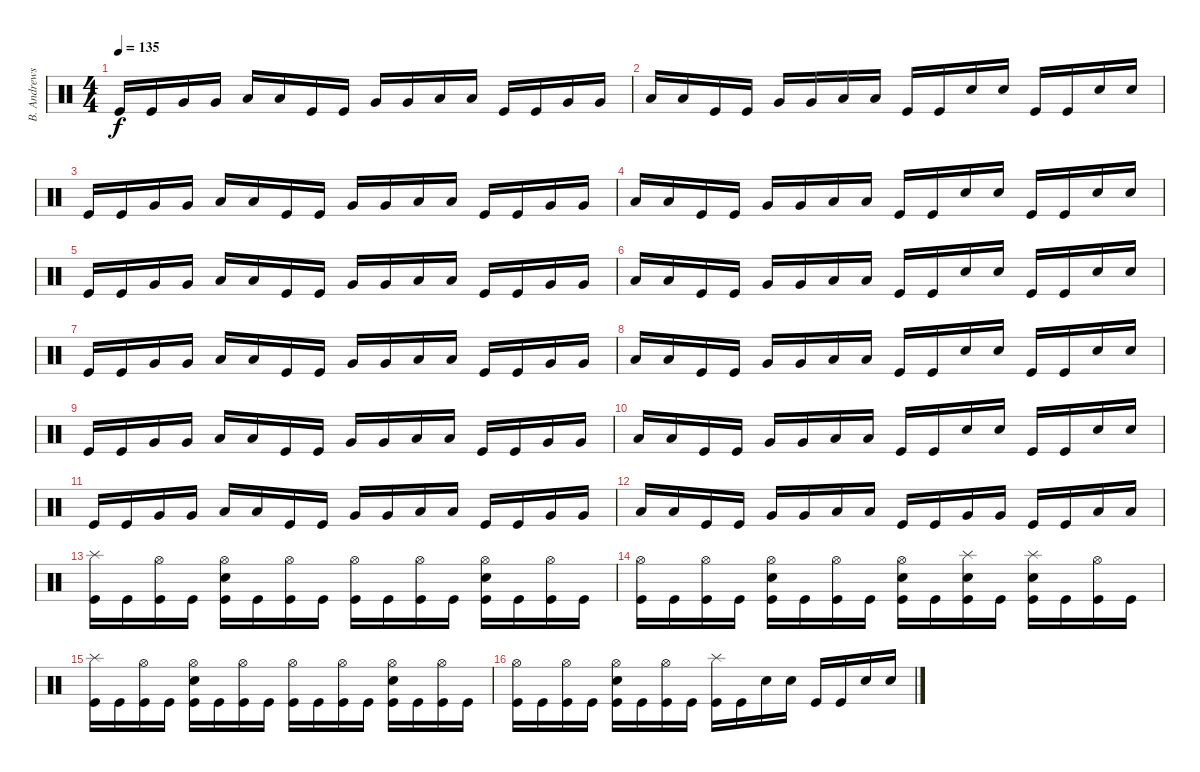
\track ("B. Andrews" "B. Andrews") {instrument percussion}
\staff {score}
\articulation defaults
\ts (4 4)
\tempo 140
\tempo 135
\clef neutral
\ks c "Kick (hit)".16{dy f} "Kick (hit)".16 "Very Low Tom (hit)".16 "Very Low Tom (hit)".16 "Low Floor Tom (hit)".16 "Low Floor Tom (hit)".16 "Kick (hit)".16 "Kick (hit)".16 "Very Low Tom (hit)".16 "Very Low Tom (hit)".16 "Low Floor Tom (hit)".16 "Low Floor Tom (hit)".16 "Kick (hit)".16 "Kick (hit)".16 "Very Low Tom (hit)".16 "Very Low Tom (hit)".16
|
"Low Floor Tom (hit)".16 "Low Floor Tom (hit)".16 "Kick (hit)".16 "Kick (hit)".16 "Very Low Tom (hit)".16 "Very Low Tom (hit)".16 "Low Floor Tom (hit)".16 "Low Floor Tom (hit)".16 "Kick (hit)".16 "Kick (hit)".16 "Electric Snare (hit)".16 "Electric Snare (hit)".16 "Kick (hit)".16 "Kick (hit)".16 "Electric Snare (hit)".16 "Electric Snare (hit)".16 |
"Kick (hit)".16 "Kick (hit)".16 "Very Low Tom (hit)".16 "Very Low Tom (hit)".16 "Low Floor Tom (hit)".16 "Low Floor Tom (hit)".16 "Kick (hit)".16 "Kick (hit)".16 "Very Low Tom (hit)".16 "Very Low Tom (hit)".16 "Low Floor Tom (hit)".16 "Low Floor Tom (hit)".16 "Kick (hit)".16 "Kick (hit)".16 "Very Low Tom (hit)".16 "Very Low Tom (hit)".16 |
"Low Floor Tom (hit)".16 "Low Floor Tom (hit)".16 "Kick (hit)".16 "Kick (hit)".16 "Very Low Tom (hit)".16 "Very Low Tom (hit)".16 "Low Floor Tom (hit)".16 "Low Floor Tom (hit)".16 "Kick (hit)".16 "Kick (hit)".16 "Electric Snare (hit)".16 "Electric Snare (hit)".16 "Kick (hit)".16 "Kick (hit)".16 "Electric Snare (hit)".16 "Electric Snare (hit)".16 |
"Kick (hit)".16 "Kick (hit)".16 "Very Low Tom (hit)".16 "Very Low Tom (hit)".16 "Low Floor Tom (hit)".16 "Low Floor Tom (hit)".16 "Kick (hit)".16 "Kick (hit)".16 "Very Low Tom (hit)".16 "Very Low Tom (hit)".16 "Low Floor Tom (hit)".16 "Low Floor Tom (hit)".16 "Kick (hit)".16 "Kick (hit)".16 "Very Low Tom (hit)".16 "Very Low Tom (hit)".16 |
"Low Floor Tom (hit)".16 "Low Floor Tom (hit)".16 "Kick (hit)".16 "Kick (hit)".16 "Very Low Tom (hit)".16 "Very Low Tom (hit)".16 "Low Floor Tom (hit)".16 "Low Floor Tom (hit)".16 "Kick (hit)".16 "Kick (hit)".16 "Electric Snare (hit)".16 "Electric Snare (hit)".16 "Kick (hit)".16 "Kick (hit)".16 "Electric Snare (hit)".16 "Electric Snare (hit)".16 |
"Kick (hit)".16 "Kick (hit)".16 "Very Low Tom (hit)".16 "Very Low Tom (hit)".16 "Low Floor Tom (hit)".16 "Low Floor Tom (hit)".16 "Kick (hit)".16 "Kick (hit)".16 "Very Low Tom (hit)".16 "Very Low Tom (hit)".16 "Low Floor Tom (hit)".16 "Low Floor Tom (hit)".16 "Kick (hit)".16 "Kick (hit)".16 "Very Low Tom (hit)".16 "Very Low Tom (hit)".16 |
"Low Floor Tom (hit)".16 "Low Floor Tom (hit)".16 "Kick (hit)".16 "Kick (hit)".16 "Very Low Tom (hit)".16 "Very Low Tom (hit)".16 "Low Floor Tom (hit)".16 "Low Floor Tom (hit)".16 "Kick (hit)".16 "Kick (hit)".16 "Electric Snare (hit)".16 "Electric Snare (hit)".16 "Kick (hit)".16 "Kick (hit)".16 "Electric Snare (hit)".16 "Electric Snare (hit)".16 |
"Kick (hit)".16 "Kick (hit)".16 "Very Low Tom (hit)".16 "Very Low Tom (hit)".16 "Low Floor Tom (hit)".16 "Low Floor Tom (hit)".16 "Kick (hit)".16 "Kick (hit)".16 "Very Low Tom (hit)".16 "Very Low Tom (hit)".16 "Low Floor Tom (hit)".16 "Low Floor Tom (hit)".16 "Kick (hit)".16 "Kick (hit)".16 "Very Low Tom (hit)".16 "Very Low Tom (hit)".16 |
"Low Floor Tom (hit)".16 "Low Floor Tom (hit)".16 "Kick (hit)".16 "Kick (hit)".16 "Very Low Tom (hit)".16 "Very Low Tom (hit)".16 "Low Floor Tom (hit)".16 "Low Floor Tom (hit)".16 "Kick (hit)".16 "Kick (hit)".16 "Electric Snare (hit)".16 "Electric Snare (hit)".16 "Kick (hit)".16 "Kick (hit)".16 "Electric Snare (hit)".16 "Electric Snare (hit)".16 |
"Kick (hit)".16 "Kick (hit)".16 "Very Low Tom (hit)".16 "Very Low Tom (hit)".16 "Low Floor Tom (hit)".16 "Low Floor Tom (hit)".16 "Kick (hit)".16 "Kick (hit)".16 "Very Low Tom (hit)".16 "Very Low Tom (hit)".16 "Low Floor Tom (hit)".16 "Low Floor Tom (hit)".16 "Kick (hit)".16 "Kick (hit)".16 "Very Low Tom (hit)".16 "Very Low Tom (hit)".16 |
"Low Floor Tom (hit)".16 "Low Floor Tom (hit)".16 "Kick (hit)".16 "Kick (hit)".16 "Very Low Tom (hit)".16 "Very Low Tom (hit)".16 "Low Floor Tom (hit)".16 "Low Floor Tom (hit)".16 "Kick (hit)".16 "Kick (hit)".16 "Very Low Tom (hit)".16 "Very Low Tom (hit)".16 "Kick (hit)".16 "Kick (hit)".16 "Low Floor Tom (hit)".16 "Low Floor Tom (hit)".16 |
("Splash (hit)" "Kick (hit)").16 "Kick (hit)".16 ("Hi-Hat (open)" "Kick (hit)").16 "Kick (hit)".16 ("Hi-Hat (open)" "Electric Snare (hit)" "Kick (hit)").16 "Kick (hit)".16 ("Hi-Hat (open)" "Kick (hit)").16 "Kick (hit)".16 ("Hi-Hat (open)" "Kick (hit)").16 "Kick (hit)".16 ("Hi-Hat (open)" "Kick (hit)").16 "Kick (hit)".16 ("Hi-Hat (open)" "Electric Snare (hit)" "Kick (hit)").16 "Kick (hit)".16 ("Hi-Hat (open)" "Kick (hit)").16 "Kick (hit)".16 |
("Hi-Hat (open)" "Kick (hit)").16 "Kick (hit)".16 ("Hi-Hat (open)" "Kick (hit)").16 "Kick (hit)".16 ("Hi-Hat (open)" "Electric Snare (hit)" "Kick (hit)").16 "Kick (hit)".16 ("Hi-Hat (open)" "Kick (hit)").16 "Kick (hit)".16 ("Hi-Hat (open)" "Electric Snare (hit)" "Kick (hit)").16 "Kick (hit)".16 ("Splash (hit)" "Electric Snare (hit)" "Kick (hit)").16 "Kick (hit)".16 ("Splash (hit)" "Electric Snare (hit)" "Kick (hit)").16 "Kick (hit)".16 ("Hi-Hat (open)" "Kick (hit)").16 "Kick (hit)".16 |
("Splash (hit)" "Kick (hit)").16 "Kick (hit)".16 ("Hi-Hat (open)" "Kick (hit)").16 "Kick (hit)".16 ("Hi-Hat (open)" "Electric Snare (hit)" "Kick (hit)").16 "Kick (hit)".16 ("Hi-Hat (open)" "Kick (hit)").16 "Kick (hit)".16 ("Hi-Hat (open)" "Kick (hit)").16 "Kick (hit)".16 ("Hi-Hat (open)" "Kick (hit)").16 "Kick (hit)".16 ("Hi-Hat (open)" "Electric Snare (hit)" "Kick (hit)").16 "Kick (hit)".16 ("Hi-Hat (open)" "Kick (hit)").16 "Kick (hit)".16 |
("Hi-Hat (open)" "Kick (hit)").16 "Kick (hit)".16 ("Hi-Hat (open)" "Kick (hit)").16 "Kick (hit)".16 ("Hi-Hat (open)" "Electric Snare (hit)" "Kick (hit)").16 "Kick (hit)".16 ("Hi-Hat (open)" "Kick (hit)").16 "Kick (hit)".16 ("Splash (hit)" "Kick (hit)").16 "Kick (hit)".16 "Electric Snare (hit)".16 "Electric Snare (hit)".16 "Kick (hit)".16 "Kick (hit)".16 "Electric Snare (hit)".16 "Electric Snare (hit)".16
